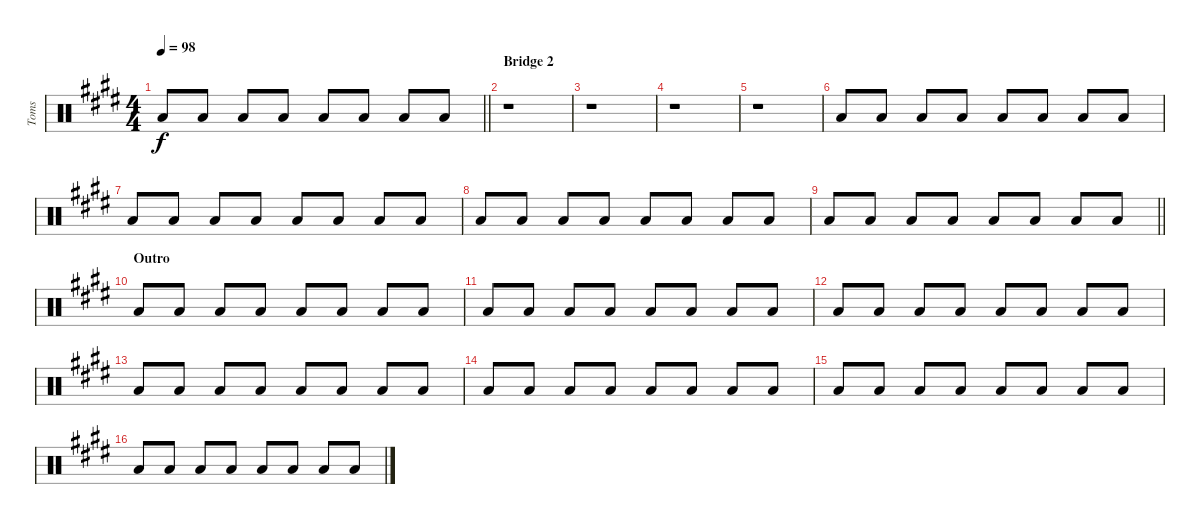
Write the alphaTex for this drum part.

\track ("Toms" "Toms") {instrument percussion}
\staff {score}
\articulation defaults
\ts (4 4)
\tempo 98
\clef neutral
\barLineRight lightlight
\ks c#minor "Low Tom (hit)".8{dy f} "Low Floor Tom (hit)".8 "Low Floor Tom (hit)".8 "Low Floor Tom (hit)".8 "Low Tom (hit)".8 "Low Floor Tom (hit)".8 "Low Floor Tom (hit)".8 "Low Floor Tom (hit)".8
|
\section ("" "Bridge 2")
r.1 |
r.1 |
r.1 |
r.1 |
"Low Tom (hit)".8 "Low Floor Tom (hit)".8 "Low Floor Tom (hit)".8 "Low Floor Tom (hit)".8 "Low Tom (hit)".8 "Low Floor Tom (hit)".8 "Low Floor Tom (hit)".8 "Low Floor Tom (hit)".8 |
"Low Tom (hit)".8 "Low Floor Tom (hit)".8 "Low Floor Tom (hit)".8 "Low Floor Tom (hit)".8 "Low Tom (hit)".8 "Low Floor Tom (hit)".8 "Low Floor Tom (hit)".8 "Low Floor Tom (hit)".8 |
"Low Tom (hit)".8 "Low Floor Tom (hit)".8 "Low Floor Tom (hit)".8 "Low Floor Tom (hit)".8 "Low Tom (hit)".8 "Low Floor Tom (hit)".8 "Low Floor Tom (hit)".8 "Low Floor Tom (hit)".8 |
\barLineRight lightlight "Low Tom (hit)".8 "Low Floor Tom (hit)".8 "Low Floor Tom (hit)".8 "Low Floor Tom (hit)".8 "Low Tom (hit)".8 "Low Floor Tom (hit)".8 "Low Floor Tom (hit)".8 "Low Floor Tom (hit)".8
|
\section ("" "Outro")
"Low Tom (hit)".8 "Low Floor Tom (hit)".8 "Low Floor Tom (hit)".8 "Low Floor Tom (hit)".8 "Low Tom (hit)".8 "Low Floor Tom (hit)".8 "Low Floor Tom (hit)".8 "Low Floor Tom (hit)".8 |
"Low Tom (hit)".8 "Low Floor Tom (hit)".8 "Low Floor Tom (hit)".8 "Low Floor Tom (hit)".8 "Low Tom (hit)".8 "Low Floor Tom (hit)".8 "Low Floor Tom (hit)".8 "Low Floor Tom (hit)".8 |
"Low Tom (hit)".8 "Low Floor Tom (hit)".8 "Low Floor Tom (hit)".8 "Low Floor Tom (hit)".8 "Low Tom (hit)".8 "Low Floor Tom (hit)".8 "Low Floor Tom (hit)".8 "Low Floor Tom (hit)".8 |
"Low Tom (hit)".8 "Low Floor Tom (hit)".8 "Low Floor Tom (hit)".8 "Low Floor Tom (hit)".8 "Low Tom (hit)".8 "Low Floor Tom (hit)".8 "Low Floor Tom (hit)".8 "Low Floor Tom (hit)".8 |
"Low Tom (hit)".8 "Low Floor Tom (hit)".8 "Low Floor Tom (hit)".8 "Low Floor Tom (hit)".8 "Low Tom (hit)".8 "Low Floor Tom (hit)".8 "Low Floor Tom (hit)".8 "Low Floor Tom (hit)".8 |
"Low Tom (hit)".8 "Low Floor Tom (hit)".8 "Low Floor Tom (hit)".8 "Low Floor Tom (hit)".8 "Low Tom (hit)".8 "Low Floor Tom (hit)".8 "Low Floor Tom (hit)".8 "Low Floor Tom (hit)".8 |
"Low Tom (hit)".8 "Low Floor Tom (hit)".8 "Low Floor Tom (hit)".8 "Low Floor Tom (hit)".8 "Low Tom (hit)".8 "Low Floor Tom (hit)".8 "Low Floor Tom (hit)".8 "Low Floor Tom (hit)".8
